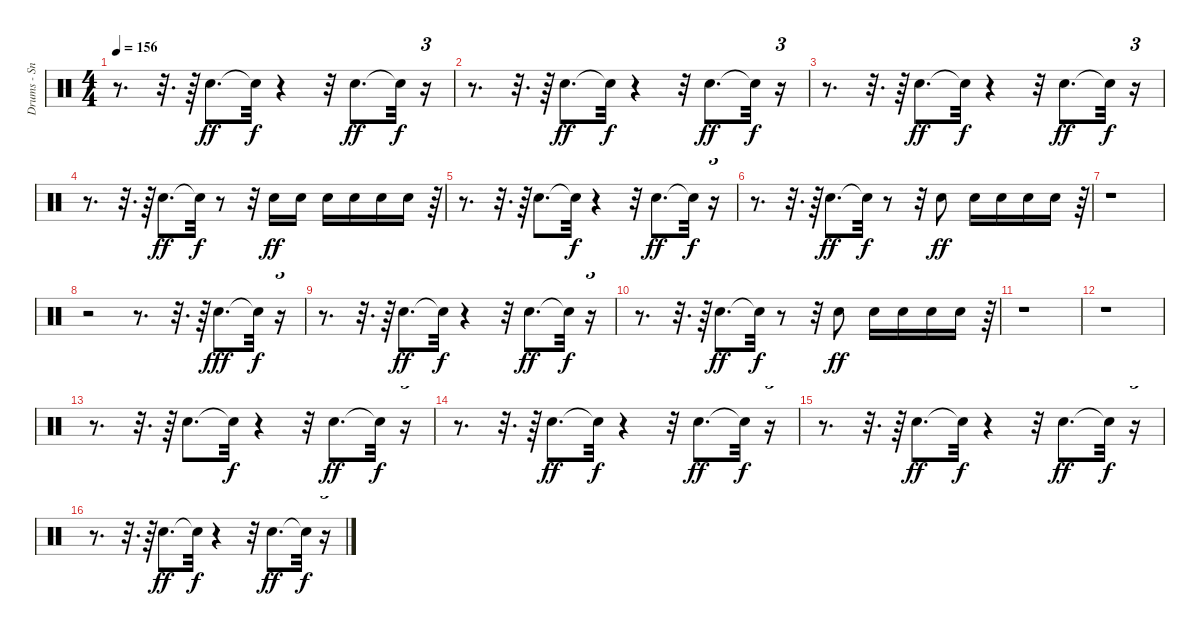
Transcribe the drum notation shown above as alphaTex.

\track ("Drums - Snare/Toms" "Drums - Sn") {instrument percussion}
\staff {score}
\articulation defaults
\ts (4 4)
\tempo 156
\clef neutral
\ks c
r.8{d dy ff} r.32{d} r.64 "Electric Snare (hit)".8{d} "Snare (hit)"{t}.32{dy f} r.4 r.32 "Electric Snare (hit)".8{d dy ff} "Snare (hit)"{t}.32{dy f} r.16{tu (3 2)} |
r.8{d} r.32{d} r.64 "Electric Snare (hit)".8{d dy ff} "Snare (hit)"{t}.32{dy f} r.4 r.32 "Electric Snare (hit)".8{d dy ff} "Snare (hit)"{t}.32{dy f} r.16{tu (3 2)} |
r.8{d} r.32{d} r.64 "Electric Snare (hit)".8{d dy ff} "Snare (hit)"{t}.32{dy f} r.4 r.32 "Electric Snare (hit)".8{d dy ff} "Snare (hit)"{t}.32{dy f} r.16{tu (3 2)} |
r.8{d} r.32{d} r.64 "Electric Snare (hit)".8{d dy ff} "Snare (hit)"{t}.32{dy f} r.8 r.32 "Electric Snare (hit)".16{dy ff} "Electric Snare (hit)".16 "Electric Snare (hit)".16 "Electric Snare (hit)".16 "Electric Snare (hit)".16 "Electric Snare (hit)".16 r.64{tu (3 2)} |
r.8{d} r.32{d} r.64 "Electric Snare (hit)".8{d} "Snare (hit)"{t}.32{dy f} r.4 r.32 "Electric Snare (hit)".8{d dy ff} "Snare (hit)"{t}.32{dy f} r.16{tu (3 2)} |
r.8{d} r.32{d} r.64 "Electric Snare (hit)".8{d dy ff} "Snare (hit)"{t}.32{dy f} r.8 r.32 "Electric Snare (hit)".8{dy ff} "Electric Snare (hit)".16 "Electric Snare (hit)".16 "Electric Snare (hit)".16 "Electric Snare (hit)".16 r.64{tu (3 2)} |
r.1 |
r.2 r.8{d} r.32{d} r.64 "Electric Snare (hit)".8{d dy fff} "Snare (hit)"{t}.32{dy f} r.16{tu (3 2)} |
r.8{d} r.32{d} r.64 "Electric Snare (hit)".8{d dy ff} "Snare (hit)"{t}.32{dy f} r.4 r.32 "Electric Snare (hit)".8{d dy ff} "Snare (hit)"{t}.32{dy f} r.16{tu (3 2)} |
r.8{d} r.32{d} r.64 "Electric Snare (hit)".8{d dy ff} "Snare (hit)"{t}.32{dy f} r.8 r.32 "Electric Snare (hit)".8{dy ff} "Electric Snare (hit)".16 "Electric Snare (hit)".16 "Electric Snare (hit)".16 "Electric Snare (hit)".16 r.64{tu (3 2)} |
r.1 |
r.1 |
r.8{d} r.32{d} r.64 "Electric Snare (hit)".8{d} "Snare (hit)"{t}.32{dy f} r.4 r.32 "Electric Snare (hit)".8{d dy ff} "Snare (hit)"{t}.32{dy f} r.16{tu (3 2)} |
r.8{d} r.32{d} r.64 "Electric Snare (hit)".8{d dy ff} "Snare (hit)"{t}.32{dy f} r.4 r.32 "Electric Snare (hit)".8{d dy ff} "Snare (hit)"{t}.32{dy f} r.16{tu (3 2)} |
r.8{d} r.32{d} r.64 "Electric Snare (hit)".8{d dy ff} "Snare (hit)"{t}.32{dy f} r.4 r.32 "Electric Snare (hit)".8{d dy ff} "Snare (hit)"{t}.32{dy f} r.16{tu (3 2)} |
r.8{d} r.32{d} r.64 "Electric Snare (hit)".8{d dy ff} "Snare (hit)"{t}.32{dy f} r.4 r.32 "Electric Snare (hit)".8{d dy ff} "Snare (hit)"{t}.32{dy f} r.16{tu (3 2)}
